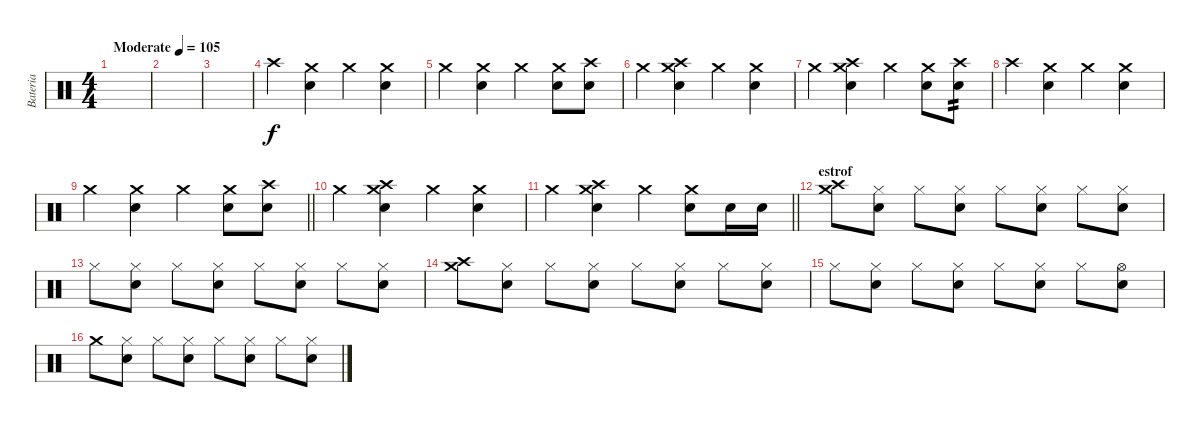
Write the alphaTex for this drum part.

\track ("Bateria" "Bateria") {instrument percussion}
\staff {score}
\articulation defaults
\ts (4 4)
\tempo (105 "Moderate")
\clef neutral
\ks c
|
|
|
"Crash high (hit)".4 ("Crash medium (hit)" "Snare (hit) 2").4 "Crash medium (hit)".4 ("Crash medium (hit)" "Snare (hit) 2").4 |
"Crash medium (hit)".4 ("Crash medium (hit)" "Snare (hit) 2").4 "Crash medium (hit)".4 ("Crash medium (hit)" "Snare (hit) 2").8 ("Crash high (hit)" "Electric Snare (hit)").8 |
"Crash medium (hit)".4 ("Crash high (hit)" "Crash medium (hit)" "Snare (hit) 2").4 "Crash medium (hit)".4 ("Crash medium (hit)" "Snare (hit) 2").4 |
"Crash medium (hit)".4 ("Crash high (hit)" "Crash medium (hit)" "Snare (hit) 2").4 "Crash medium (hit)".4 ("Crash medium (hit)" "Electric Snare (hit)").8 ("Crash high (hit)" "Snare (hit) 2").8{tp 2} |
"Crash high (hit)".4 ("Crash medium (hit)" "Snare (hit) 2").4 "Crash medium (hit)".4 ("Crash medium (hit)" "Electric Snare (hit)").4 |
\barLineRight lightlight "Crash medium (hit)".4
("Crash medium (hit)" "Snare (hit) 2").4 "Crash medium (hit)".4 ("Crash medium (hit)" "Electric Snare (hit)").8 ("Crash high (hit)" "Snare (hit) 2").8 |
"Crash medium (hit)".4 ("Crash high (hit)" "Crash medium (hit)" "Electric Snare (hit)").4 "Crash medium (hit)".4 ("Crash medium (hit)" "Snare (hit) 2").4 |
\barLineRight lightlight "Crash medium (hit)".4
("Crash high (hit)" "Crash medium (hit)" "Snare (hit) 2").4 "Crash medium (hit)".4 ("Crash medium (hit)" "Snare (hit) 2").8 "Snare (hit) 2".16 "Snare (hit) 2".16 |
\section ("" "estrof")
("Crash high (hit)" "Crash medium (hit)").8 ("Hi-Hat (closed)" "Snare (hit) 2").8 "Hi-Hat (closed)".8 ("Hi-Hat (closed)" "Snare (hit) 2").8 "Hi-Hat (closed)".8 ("Hi-Hat (closed)" "Snare (hit) 2").8 "Hi-Hat (closed)".8 ("Hi-Hat (closed)" "Snare (hit) 2").8 |
"Hi-Hat (closed)".8 ("Hi-Hat (closed)" "Snare (hit) 2").8 "Hi-Hat (closed)".8 ("Hi-Hat (closed)" "Snare (hit) 2").8 "Hi-Hat (closed)".8 ("Hi-Hat (closed)" "Snare (hit) 2").8 "Hi-Hat (closed)".8 ("Hi-Hat (closed)" "Snare (hit) 2").8 |
("Crash high (hit)" "Crash medium (hit)").8 ("Hi-Hat (closed)" "Snare (hit) 2").8 "Hi-Hat (closed)".8 ("Hi-Hat (closed)" "Snare (hit) 2").8 "Hi-Hat (closed)".8 ("Hi-Hat (closed)" "Snare (hit) 2").8 "Hi-Hat (closed)".8 ("Hi-Hat (closed)" "Snare (hit) 2").8 |
"Hi-Hat (closed)".8 ("Hi-Hat (closed)" "Snare (hit) 2").8 "Hi-Hat (closed)".8 ("Hi-Hat (closed)" "Snare (hit) 2").8 "Hi-Hat (closed)".8 ("Hi-Hat (closed)" "Snare (hit) 2").8 "Hi-Hat (closed)".8 ("Hi-Hat (open)" "Snare (hit) 2").8 |
"Crash medium (hit)".8 ("Hi-Hat (closed)" "Snare (hit) 2").8 "Hi-Hat (closed)".8 ("Hi-Hat (closed)" "Snare (hit) 2").8 "Hi-Hat (closed)".8 ("Hi-Hat (closed)" "Snare (hit) 2").8 "Hi-Hat (closed)".8 ("Hi-Hat (closed)" "Snare (hit) 2").8
